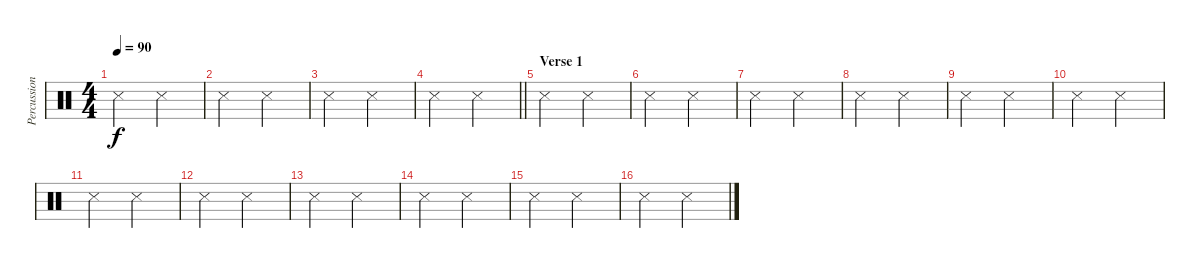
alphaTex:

\track ("Percussion" "Percussion") {instrument percussion}
\staff {score}
\articulation defaults
\ts (4 4)
\tempo 90
\clef neutral
\ks c "Snare (side stick) 3".2{dy f} "Snare (side stick) 3".2
|
"Snare (side stick) 3".2 "Snare (side stick) 3".2 |
"Snare (side stick) 3".2 "Snare (side stick) 3".2 |
\barLineRight lightlight "Snare (side stick) 3".2 "Snare (side stick) 3".2
|
\section ("" "Verse 1")
"Snare (side stick) 3".2 "Snare (side stick) 3".2 |
"Snare (side stick) 3".2 "Snare (side stick) 3".2 |
"Snare (side stick) 3".2 "Snare (side stick) 3".2 |
"Snare (side stick) 3".2 "Snare (side stick) 3".2 |
"Snare (side stick) 3".2 "Snare (side stick) 3".2 |
"Snare (side stick) 3".2 "Snare (side stick) 3".2 |
"Snare (side stick) 3".2 "Snare (side stick) 3".2 |
"Snare (side stick) 3".2 "Snare (side stick) 3".2 |
"Snare (side stick) 3".2 "Snare (side stick) 3".2 |
"Snare (side stick) 3".2 "Snare (side stick) 3".2 |
"Snare (side stick) 3".2 "Snare (side stick) 3".2 |
"Snare (side stick) 3".2 "Snare (side stick) 3".2
